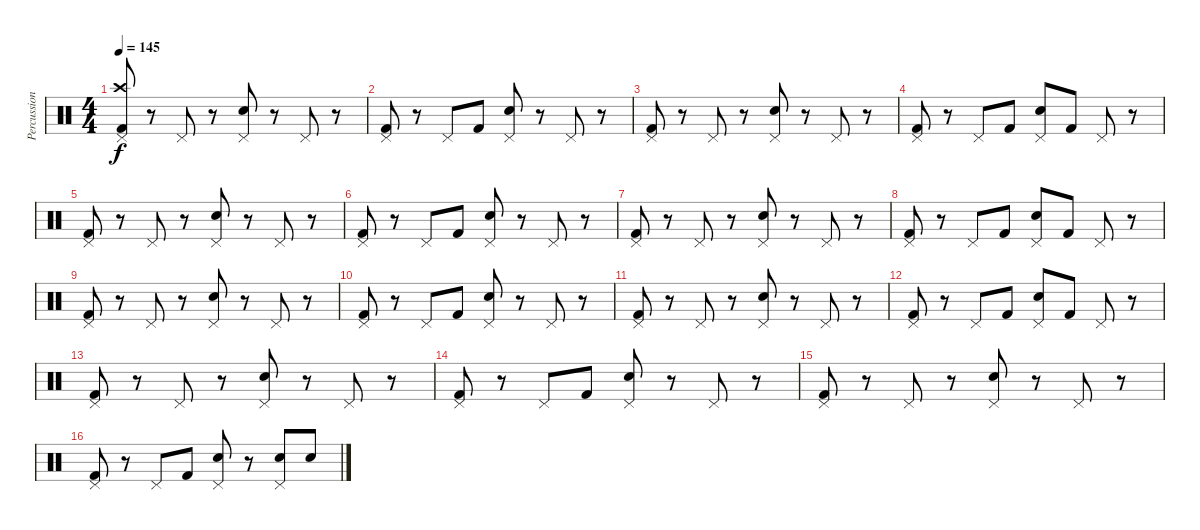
\track ("Percussion" "Percussion") {instrument percussion}
\staff {score}
\articulation defaults
\ts (4 4)
\tempo 145
\clef neutral
\ks c
("Pedal Hi-Hat (hit)" "Crash high (hit)" "Kick (hit) 2").8{dy f} r.8 "Pedal Hi-Hat (hit)".8 r.8 ("Pedal Hi-Hat (hit)" "Electric Snare (hit)").8 r.8 "Pedal Hi-Hat (hit)".8 r.8 |
("Pedal Hi-Hat (hit)" "Kick (hit) 2").8 r.8 "Pedal Hi-Hat (hit)".8 "Kick (hit) 2".8 ("Pedal Hi-Hat (hit)" "Electric Snare (hit)").8 r.8 "Pedal Hi-Hat (hit)".8 r.8 |
("Pedal Hi-Hat (hit)" "Kick (hit) 2").8 r.8 "Pedal Hi-Hat (hit)".8 r.8 ("Pedal Hi-Hat (hit)" "Electric Snare (hit)").8 r.8 "Pedal Hi-Hat (hit)".8 r.8 |
("Pedal Hi-Hat (hit)" "Kick (hit) 2").8 r.8 "Pedal Hi-Hat (hit)".8 "Kick (hit) 2".8 ("Pedal Hi-Hat (hit)" "Electric Snare (hit)").8 "Kick (hit) 2".8 "Pedal Hi-Hat (hit)".8 r.8 |
("Pedal Hi-Hat (hit)" "Kick (hit) 2").8 r.8 "Pedal Hi-Hat (hit)".8 r.8 ("Pedal Hi-Hat (hit)" "Electric Snare (hit)").8 r.8 "Pedal Hi-Hat (hit)".8 r.8 |
("Pedal Hi-Hat (hit)" "Kick (hit) 2").8 r.8 "Pedal Hi-Hat (hit)".8 "Kick (hit) 2".8 ("Pedal Hi-Hat (hit)" "Electric Snare (hit)").8 r.8 "Pedal Hi-Hat (hit)".8 r.8 |
("Pedal Hi-Hat (hit)" "Kick (hit) 2").8 r.8 "Pedal Hi-Hat (hit)".8 r.8 ("Pedal Hi-Hat (hit)" "Electric Snare (hit)").8 r.8 "Pedal Hi-Hat (hit)".8 r.8 |
("Pedal Hi-Hat (hit)" "Kick (hit) 2").8 r.8 "Pedal Hi-Hat (hit)".8 "Kick (hit) 2".8 ("Pedal Hi-Hat (hit)" "Electric Snare (hit)").8 "Kick (hit) 2".8 "Pedal Hi-Hat (hit)".8 r.8 |
("Pedal Hi-Hat (hit)" "Kick (hit) 2").8 r.8 "Pedal Hi-Hat (hit)".8 r.8 ("Pedal Hi-Hat (hit)" "Electric Snare (hit)").8 r.8 "Pedal Hi-Hat (hit)".8 r.8 |
("Pedal Hi-Hat (hit)" "Kick (hit) 2").8 r.8 "Pedal Hi-Hat (hit)".8 "Kick (hit) 2".8 ("Pedal Hi-Hat (hit)" "Electric Snare (hit)").8 r.8 "Pedal Hi-Hat (hit)".8 r.8 |
("Pedal Hi-Hat (hit)" "Kick (hit) 2").8 r.8 "Pedal Hi-Hat (hit)".8 r.8 ("Pedal Hi-Hat (hit)" "Electric Snare (hit)").8 r.8 "Pedal Hi-Hat (hit)".8 r.8 |
("Pedal Hi-Hat (hit)" "Kick (hit) 2").8 r.8 "Pedal Hi-Hat (hit)".8 "Kick (hit) 2".8 ("Pedal Hi-Hat (hit)" "Electric Snare (hit)").8 "Kick (hit) 2".8 "Pedal Hi-Hat (hit)".8 r.8 |
("Pedal Hi-Hat (hit)" "Kick (hit) 2").8 r.8 "Pedal Hi-Hat (hit)".8 r.8 ("Pedal Hi-Hat (hit)" "Electric Snare (hit)").8 r.8 "Pedal Hi-Hat (hit)".8 r.8 |
("Pedal Hi-Hat (hit)" "Kick (hit) 2").8 r.8 "Pedal Hi-Hat (hit)".8 "Kick (hit) 2".8 ("Pedal Hi-Hat (hit)" "Electric Snare (hit)").8 r.8 "Pedal Hi-Hat (hit)".8 r.8 |
("Pedal Hi-Hat (hit)" "Kick (hit) 2").8 r.8 "Pedal Hi-Hat (hit)".8 r.8 ("Pedal Hi-Hat (hit)" "Electric Snare (hit)").8 r.8 "Pedal Hi-Hat (hit)".8 r.8 |
("Pedal Hi-Hat (hit)" "Kick (hit) 2").8 r.8 "Pedal Hi-Hat (hit)".8 "Kick (hit) 2".8 ("Pedal Hi-Hat (hit)" "Electric Snare (hit)").8 r.8 ("Pedal Hi-Hat (hit)" "Electric Snare (hit)").8 "Electric Snare (hit)".8
